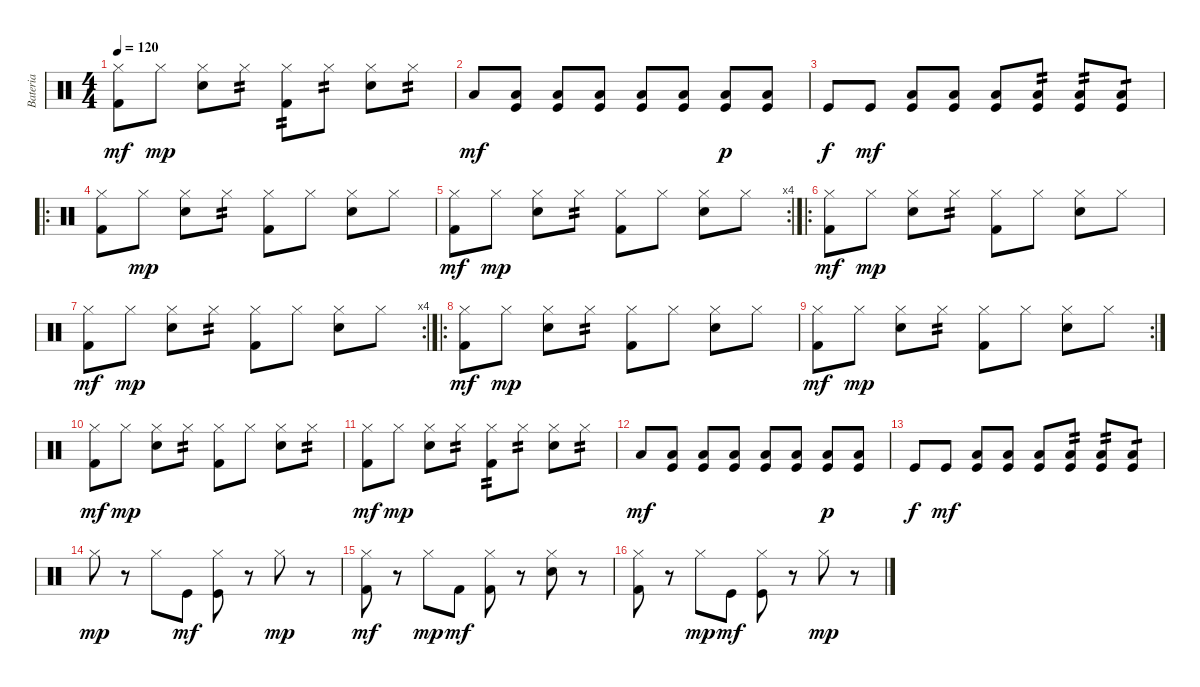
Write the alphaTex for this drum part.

\track ("Bateria" "Bateria") {instrument percussion}
\staff {score}
\articulation defaults
\ts (4 4)
\tempo 120
\clef neutral
\ks c
("Hi-Hat (closed)" "Kick (hit) 2").8{dy mf} "Hi-Hat (closed)".8{dy mp} ("Hi-Hat (closed)" "Electric Snare (hit)").8 "Hi-Hat (closed)".8{tp 2} ("Hi-Hat (closed)" "Kick (hit) 2").8{tp 2} "Hi-Hat (closed)".8{tp 2} ("Hi-Hat (closed)" "Electric Snare (hit)").8 "Hi-Hat (closed)".8{tp 2} |
"Low Floor Tom (hit)".8{dy mf} ("Low Floor Tom (hit)" "Kick (hit)").8 ("Low Floor Tom (hit)" "Kick (hit)").8 ("Low Floor Tom (hit)" "Kick (hit)").8 ("Low Floor Tom (hit)" "Kick (hit)").8 ("Low Floor Tom (hit)" "Kick (hit)").8 ("Low Floor Tom (hit)" "Kick (hit)").8{dy p} ("Low Floor Tom (hit)" "Kick (hit)").8 |
"Kick (hit)".8{dy f} "Kick (hit)".8{dy mf} ("Low Floor Tom (hit)" "Kick (hit)").8 ("Low Floor Tom (hit)" "Kick (hit)").8 ("Low Floor Tom (hit)" "Kick (hit)").8 ("Low Floor Tom (hit)" "Kick (hit)").8{tp 2} ("Low Floor Tom (hit)" "Kick (hit)").8{tp 2} ("Low Floor Tom (hit)" "Kick (hit)").8{tp 1} |
\ro
("Hi-Hat (closed)" "Kick (hit) 2").8 "Hi-Hat (closed)".8{dy mp} ("Hi-Hat (closed)" "Electric Snare (hit)").8 "Hi-Hat (closed)".8{tp 2} ("Hi-Hat (closed)" "Kick (hit) 2").8 "Hi-Hat (closed)".8 ("Hi-Hat (closed)" "Electric Snare (hit)").8 "Hi-Hat (closed)".8 |
\rc 4
("Hi-Hat (closed)" "Kick (hit) 2").8{dy mf} "Hi-Hat (closed)".8{dy mp} ("Hi-Hat (closed)" "Electric Snare (hit)").8 "Hi-Hat (closed)".8{tp 2} ("Hi-Hat (closed)" "Kick (hit) 2").8 "Hi-Hat (closed)".8 ("Hi-Hat (closed)" "Electric Snare (hit)").8 "Hi-Hat (closed)".8 |
\ro
("Hi-Hat (closed)" "Kick (hit) 2").8{dy mf} "Hi-Hat (closed)".8{dy mp} ("Hi-Hat (closed)" "Electric Snare (hit)").8 "Hi-Hat (closed)".8{tp 2} ("Hi-Hat (closed)" "Kick (hit) 2").8 "Hi-Hat (closed)".8 ("Hi-Hat (closed)" "Electric Snare (hit)").8 "Hi-Hat (closed)".8 |
\rc 4
("Hi-Hat (closed)" "Kick (hit) 2").8{dy mf} "Hi-Hat (closed)".8{dy mp} ("Hi-Hat (closed)" "Electric Snare (hit)").8 "Hi-Hat (closed)".8{tp 2} ("Hi-Hat (closed)" "Kick (hit) 2").8 "Hi-Hat (closed)".8 ("Hi-Hat (closed)" "Electric Snare (hit)").8 "Hi-Hat (closed)".8 |
\ro
("Hi-Hat (closed)" "Kick (hit) 2").8{dy mf} "Hi-Hat (closed)".8{dy mp} ("Hi-Hat (closed)" "Electric Snare (hit)").8 "Hi-Hat (closed)".8{tp 2} ("Hi-Hat (closed)" "Kick (hit) 2").8 "Hi-Hat (closed)".8 ("Hi-Hat (closed)" "Electric Snare (hit)").8 "Hi-Hat (closed)".8 |
\rc 2
("Hi-Hat (closed)" "Kick (hit) 2").8{dy mf} "Hi-Hat (closed)".8{dy mp} ("Hi-Hat (closed)" "Electric Snare (hit)").8 "Hi-Hat (closed)".8{tp 2} ("Hi-Hat (closed)" "Kick (hit) 2").8 "Hi-Hat (closed)".8 ("Hi-Hat (closed)" "Electric Snare (hit)").8 "Hi-Hat (closed)".8 |
("Hi-Hat (closed)" "Kick (hit) 2").8{dy mf} "Hi-Hat (closed)".8{dy mp} ("Hi-Hat (closed)" "Electric Snare (hit)").8 "Hi-Hat (closed)".8{tp 2} ("Hi-Hat (closed)" "Kick (hit) 2").8 "Hi-Hat (closed)".8 ("Hi-Hat (closed)" "Electric Snare (hit)").8 "Hi-Hat (closed)".8{tp 2} |
("Hi-Hat (closed)" "Kick (hit) 2").8{dy mf} "Hi-Hat (closed)".8{dy mp} ("Hi-Hat (closed)" "Electric Snare (hit)").8 "Hi-Hat (closed)".8{tp 2} ("Hi-Hat (closed)" "Kick (hit) 2").8{tp 2} "Hi-Hat (closed)".8{tp 2} ("Hi-Hat (closed)" "Electric Snare (hit)").8 "Hi-Hat (closed)".8{tp 2} |
"Low Floor Tom (hit)".8{dy mf} ("Low Floor Tom (hit)" "Kick (hit)").8 ("Low Floor Tom (hit)" "Kick (hit)").8 ("Low Floor Tom (hit)" "Kick (hit)").8 ("Low Floor Tom (hit)" "Kick (hit)").8 ("Low Floor Tom (hit)" "Kick (hit)").8 ("Low Floor Tom (hit)" "Kick (hit)").8{dy p} ("Low Floor Tom (hit)" "Kick (hit)").8 |
"Kick (hit)".8{dy f} "Kick (hit)".8{dy mf} ("Low Floor Tom (hit)" "Kick (hit)").8 ("Low Floor Tom (hit)" "Kick (hit)").8 ("Low Floor Tom (hit)" "Kick (hit)").8 ("Low Floor Tom (hit)" "Kick (hit)").8{tp 2} ("Low Floor Tom (hit)" "Kick (hit)").8{tp 2} ("Low Floor Tom (hit)" "Kick (hit)").8{tp 1} |
"Hi-Hat (closed)".8{dy mp} r.8 "Hi-Hat (closed)".8 "Kick (hit)".8{dy mf} ("Hi-Hat (closed)" "Kick (hit)").8 r.8 "Hi-Hat (closed)".8{dy mp} r.8 |
("Hi-Hat (closed)" "Kick (hit) 2").8{dy mf} r.8 "Hi-Hat (closed)".8{dy mp} "Kick (hit) 2".8{dy mf} ("Hi-Hat (closed)" "Kick (hit) 2").8 r.8 ("Hi-Hat (closed)" "Electric Snare (hit)").8 r.8 |
("Hi-Hat (closed)" "Kick (hit) 2").8 r.8 "Hi-Hat (closed)".8{dy mp} "Kick (hit)".8{dy mf} ("Hi-Hat (closed)" "Kick (hit)").8 r.8 "Hi-Hat (closed)".8{dy mp} r.8
